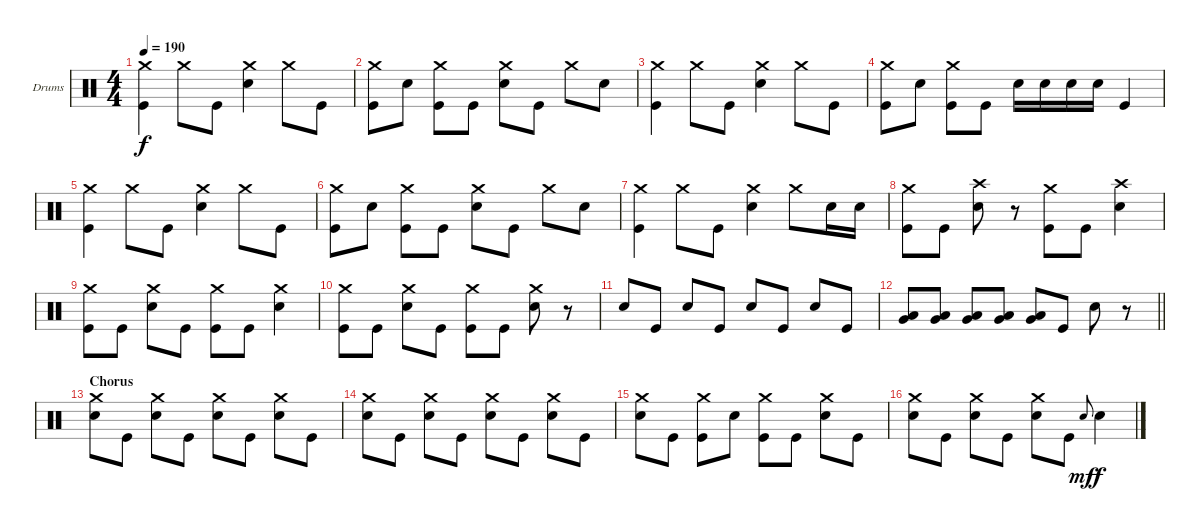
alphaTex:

\bracketExtendMode groupsimilarinstruments
\firstSystemTrackNameOrientation horizontal
\otherSystemsTrackNameOrientation horizontal
\track ("Drumkit" "Drums") {instrument percussion}
\staff {score}
\articulation defaults
\ts (4 4)
\tempo 190
\clef neutral
\ks c
("Crash medium (hit)" "Kick (hit)").4{dy f} "Crash medium (hit)".8 "Kick (hit)".8 ("Crash medium (hit)" "Snare (hit) 2").4 "Crash medium (hit)".8 "Kick (hit)".8 |
("Crash medium (hit)" "Kick (hit)").8 "Snare (hit) 2".8 ("Crash medium (hit)" "Kick (hit)").8 "Kick (hit)".8 ("Crash medium (hit)" "Snare (hit) 2").8 "Kick (hit)".8 "Crash medium (hit)".8 "Snare (hit) 2".8 |
("Crash medium (hit)" "Kick (hit)").4 "Crash medium (hit)".8 "Kick (hit)".8 ("Crash medium (hit)" "Snare (hit) 2").4 "Crash medium (hit)".8 "Kick (hit)".8 |
("Crash medium (hit)" "Kick (hit)").8 "Snare (hit) 2".8 ("Crash medium (hit)" "Kick (hit)").8 "Kick (hit)".8 "Snare (hit) 2".16 "Snare (hit) 2".16 "Snare (hit) 2".16 "Snare (hit) 2".16 "Kick (hit)".4 |
("Crash medium (hit)" "Kick (hit)").4 "Crash medium (hit)".8 "Kick (hit)".8 ("Crash medium (hit)" "Snare (hit) 2").4 "Crash medium (hit)".8 "Kick (hit)".8 |
("Crash medium (hit)" "Kick (hit)").8 "Snare (hit) 2".8 ("Crash medium (hit)" "Kick (hit)").8 "Kick (hit)".8 ("Crash medium (hit)" "Snare (hit) 2").8 "Kick (hit)".8 "Crash medium (hit)".8 "Snare (hit) 2".8 |
("Crash medium (hit)" "Kick (hit)").4 "Crash medium (hit)".8 "Kick (hit)".8 ("Crash medium (hit)" "Snare (hit) 2").4 "Crash medium (hit)".8 "Snare (hit) 2".16 "Snare (hit) 2".16 |
("Crash medium (hit)" "Kick (hit)").8 "Kick (hit)".8 ("Crash high (hit)" "Snare (hit) 2").8 r.8 ("Crash medium (hit)" "Kick (hit)").8 "Kick (hit)".8 ("Crash high (hit)" "Snare (hit) 2").4 |
("Crash medium (hit)" "Kick (hit)").8 "Kick (hit)".8 ("Crash medium (hit)" "Snare (hit) 2").8 "Kick (hit)".8 ("Crash medium (hit)" "Kick (hit)").8 "Kick (hit)".8 ("Crash medium (hit)" "Snare (hit) 2").4 |
("Crash medium (hit)" "Kick (hit)").8 "Kick (hit)".8 ("Crash medium (hit)" "Snare (hit) 2").8 "Kick (hit)".8 ("Crash medium (hit)" "Kick (hit)").8 "Kick (hit)".8 ("Crash medium (hit)" "Snare (hit) 2").8 r.8 |
"Snare (hit) 2".8 "Kick (hit)".8 "Snare (hit) 2".8 "Kick (hit)".8 "Snare (hit) 2".8 "Kick (hit)".8 "Snare (hit) 2".8 "Kick (hit)".8 |
\barLineRight lightlight
("Low Tom (hit)" "Very Low Tom (hit)").8 ("Low Tom (hit)" "Very Low Tom (hit)").8 ("Low Tom (hit)" "Very Low Tom (hit)").8 ("Low Tom (hit)" "Very Low Tom (hit)").8 ("Low Tom (hit)" "Very Low Tom (hit)").8 "Kick (hit)".8 "Snare (hit) 2".8 r.8 |
\section ("" "Chorus ")
("Crash medium (hit)" "Snare (hit) 2").8 "Kick (hit)".8 ("Crash medium (hit)" "Snare (hit) 2").8 "Kick (hit)".8 ("Crash medium (hit)" "Snare (hit) 2").8 "Kick (hit)".8 ("Crash medium (hit)" "Snare (hit) 2").8 "Kick (hit)".8 |
("Crash medium (hit)" "Snare (hit) 2").8 "Kick (hit)".8 ("Crash medium (hit)" "Snare (hit) 2").8 "Kick (hit)".8 ("Crash medium (hit)" "Snare (hit) 2").8 "Kick (hit)".8 ("Crash medium (hit)" "Snare (hit) 2").8 "Kick (hit)".8 |
("Crash medium (hit)" "Snare (hit) 2").8 "Kick (hit)".8 ("Crash medium (hit)" "Kick (hit)").8 "Snare (hit) 2".8 ("Crash medium (hit)" "Kick (hit)").8 "Kick (hit)".8 ("Crash medium (hit)" "Snare (hit) 2").8 "Kick (hit)".8 |
("Crash medium (hit)" "Snare (hit) 2").8 "Kick (hit)".8 ("Crash medium (hit)" "Snare (hit) 2").8 "Kick (hit)".8 ("Crash medium (hit)" "Snare (hit) 2").8 "Kick (hit)".8 "Snare (hit) 2".8{gr onbeat dy mf} "Snare (hit) 2".4{dy f}
